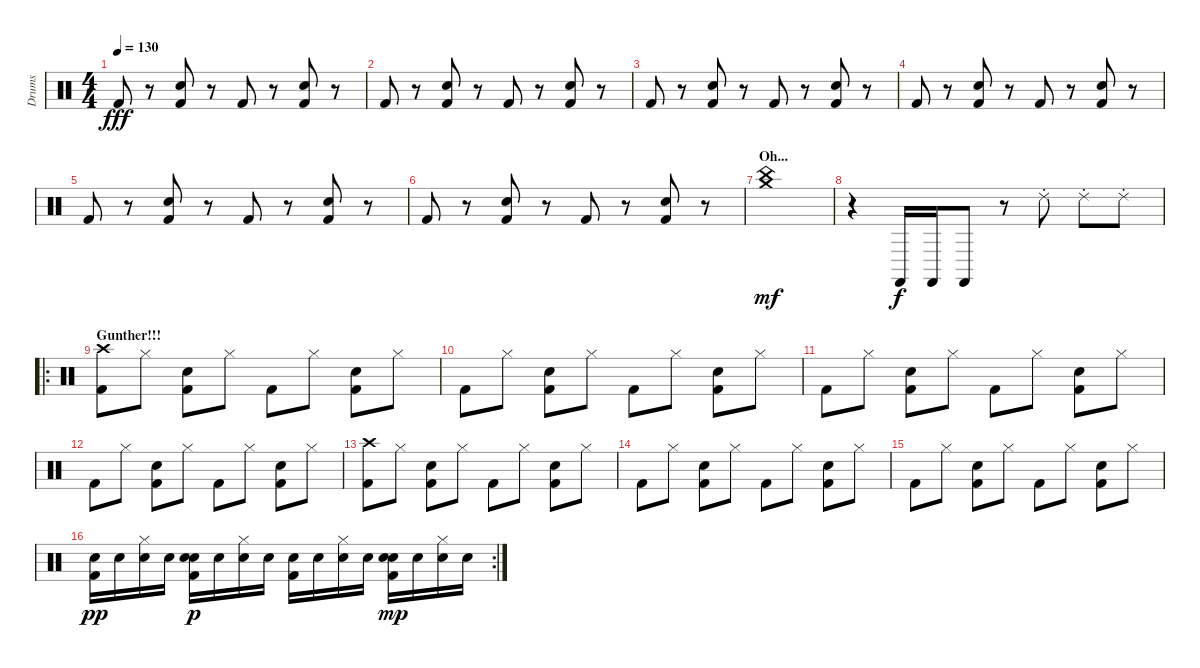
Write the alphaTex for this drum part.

\track ("Drums" "Drums") {instrument percussion}
\staff {score}
\articulation defaults
\ts (4 4)
\tempo 130
\clef neutral
\ks c "Kick (hit) 2".8{dy fff}
r.8 ("Hand Clap (hit)" "Kick (hit) 2").8 r.8 "Kick (hit) 2".8 r.8 ("Hand Clap (hit)" "Kick (hit) 2").8 r.8 |
"Kick (hit) 2".8 r.8 ("Hand Clap (hit)" "Kick (hit) 2").8 r.8 "Kick (hit) 2".8 r.8 ("Hand Clap (hit)" "Kick (hit) 2").8 r.8 |
"Kick (hit) 2".8 r.8 ("Hand Clap (hit)" "Kick (hit) 2").8 r.8 "Kick (hit) 2".8 r.8 ("Hand Clap (hit)" "Kick (hit) 2").8 r.8 |
"Kick (hit) 2".8 r.8 ("Hand Clap (hit)" "Kick (hit) 2").8 r.8 "Kick (hit) 2".8 r.8 ("Hand Clap (hit)" "Kick (hit) 2").8 r.8 |
"Kick (hit) 2".8 r.8 ("Hand Clap (hit)" "Kick (hit) 2").8 r.8 "Kick (hit) 2".8 r.8 ("Hand Clap (hit)" "Kick (hit) 2").8 r.8 |
"Kick (hit) 2".8 r.8 ("Hand Clap (hit)" "Kick (hit) 2").8 r.8 "Kick (hit) 2".8 r.8 ("Hand Clap (hit)" "Kick (hit) 2").8 r.8 |
\section ("" "Oh...")
("Crash medium (hit)" "China (hit)").1{dy mf} |
r.4 "Castanets (hit)".16{dy f} "Castanets (hit)".16 "Castanets (hit)".8 r.8 "Ride (choke) 2".8 "Ride (choke) 2".8 "Ride (choke) 2".8 |
\ro
\section ("" "Gunther!!!")
("Crash high (hit)" "Kick (hit) 2").8 "Hi-Hat (closed)".8 ("Hand Clap (hit)" "Kick (hit) 2").8 "Hi-Hat (closed)".8 "Kick (hit) 2".8 "Hi-Hat (closed)".8 ("Hand Clap (hit)" "Kick (hit) 2").8 "Hi-Hat (closed)".8 |
"Kick (hit) 2".8 "Hi-Hat (closed)".8 ("Hand Clap (hit)" "Kick (hit) 2").8 "Hi-Hat (closed)".8 "Kick (hit) 2".8 "Hi-Hat (closed)".8 ("Hand Clap (hit)" "Kick (hit) 2").8 "Hi-Hat (closed)".8 |
"Kick (hit) 2".8 "Hi-Hat (closed)".8 ("Hand Clap (hit)" "Kick (hit) 2").8 "Hi-Hat (closed)".8 "Kick (hit) 2".8 "Hi-Hat (closed)".8 ("Hand Clap (hit)" "Kick (hit) 2").8 "Hi-Hat (closed)".8 |
"Kick (hit) 2".8 "Hi-Hat (closed)".8 ("Hand Clap (hit)" "Kick (hit) 2").8 "Hi-Hat (closed)".8 "Kick (hit) 2".8 "Hi-Hat (closed)".8 ("Hand Clap (hit)" "Kick (hit) 2").8 "Hi-Hat (closed)".8 |
("Crash high (hit)" "Kick (hit) 2").8 "Hi-Hat (closed)".8 ("Hand Clap (hit)" "Kick (hit) 2").8 "Hi-Hat (closed)".8 "Kick (hit) 2".8 "Hi-Hat (closed)".8 ("Hand Clap (hit)" "Kick (hit) 2").8 "Hi-Hat (closed)".8 |
"Kick (hit) 2".8 "Hi-Hat (closed)".8 ("Hand Clap (hit)" "Kick (hit) 2").8 "Hi-Hat (closed)".8 "Kick (hit) 2".8 "Hi-Hat (closed)".8 ("Hand Clap (hit)" "Kick (hit) 2").8 "Hi-Hat (closed)".8 |
"Kick (hit) 2".8 "Hi-Hat (closed)".8 ("Hand Clap (hit)" "Kick (hit) 2").8 "Hi-Hat (closed)".8 "Kick (hit) 2".8 "Hi-Hat (closed)".8 ("Hand Clap (hit)" "Kick (hit) 2").8 "Hi-Hat (closed)".8 |
\rc 2
("Snare (hit) 2" "Kick (hit) 2").16{dy pp} "Snare (hit) 2".16 ("Snare (hit) 2" "Hi-Hat (closed)").16 "Snare (hit) 2".16 ("Snare (hit) 2" "Hand Clap (hit)" "Kick (hit) 2").16{dy p} "Snare (hit) 2".16 ("Snare (hit) 2" "Hi-Hat (closed)").16 "Snare (hit) 2".16 ("Snare (hit) 2" "Kick (hit) 2").16 "Snare (hit) 2".16 ("Snare (hit) 2" "Hi-Hat (closed)").16 "Snare (hit) 2".16 ("Snare (hit) 2" "Hand Clap (hit)" "Kick (hit) 2").16{dy mp} "Snare (hit) 2".16 ("Snare (hit) 2" "Hi-Hat (closed)").16 "Snare (hit) 2".16
